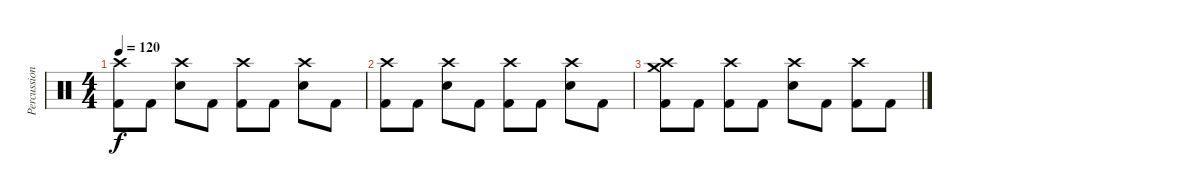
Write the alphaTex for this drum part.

\track ("Percussion" "Percussion") {instrument percussion}
\staff {score}
\articulation defaults
\ts (4 4)
\tempo 120
\clef neutral
\ks c
("Crash high (hit)" "Kick (hit) 2").8{dy f} "Kick (hit) 2".8 ("Crash high (hit)" "Electric Snare (hit)").8 "Kick (hit) 2".8 ("Crash high (hit)" "Kick (hit) 2").8 "Kick (hit) 2".8 ("Crash high (hit)" "Electric Snare (hit)").8 "Kick (hit) 2".8 |
("Crash high (hit)" "Kick (hit) 2").8 "Kick (hit) 2".8 ("Crash high (hit)" "Electric Snare (hit)").8 "Kick (hit) 2".8 ("Crash high (hit)" "Kick (hit) 2").8 "Kick (hit) 2".8 ("Crash high (hit)" "Electric Snare (hit)").8 "Kick (hit) 2".8 |
("Crash high (hit)" "Crash medium (hit)" "Kick (hit) 2").8 "Kick (hit) 2".8 ("Crash high (hit)" "Kick (hit) 2").8 "Kick (hit) 2".8 ("Crash high (hit)" "Electric Snare (hit)").8 "Kick (hit) 2".8 ("Crash high (hit)" "Kick (hit) 2").8 "Kick (hit) 2".8
